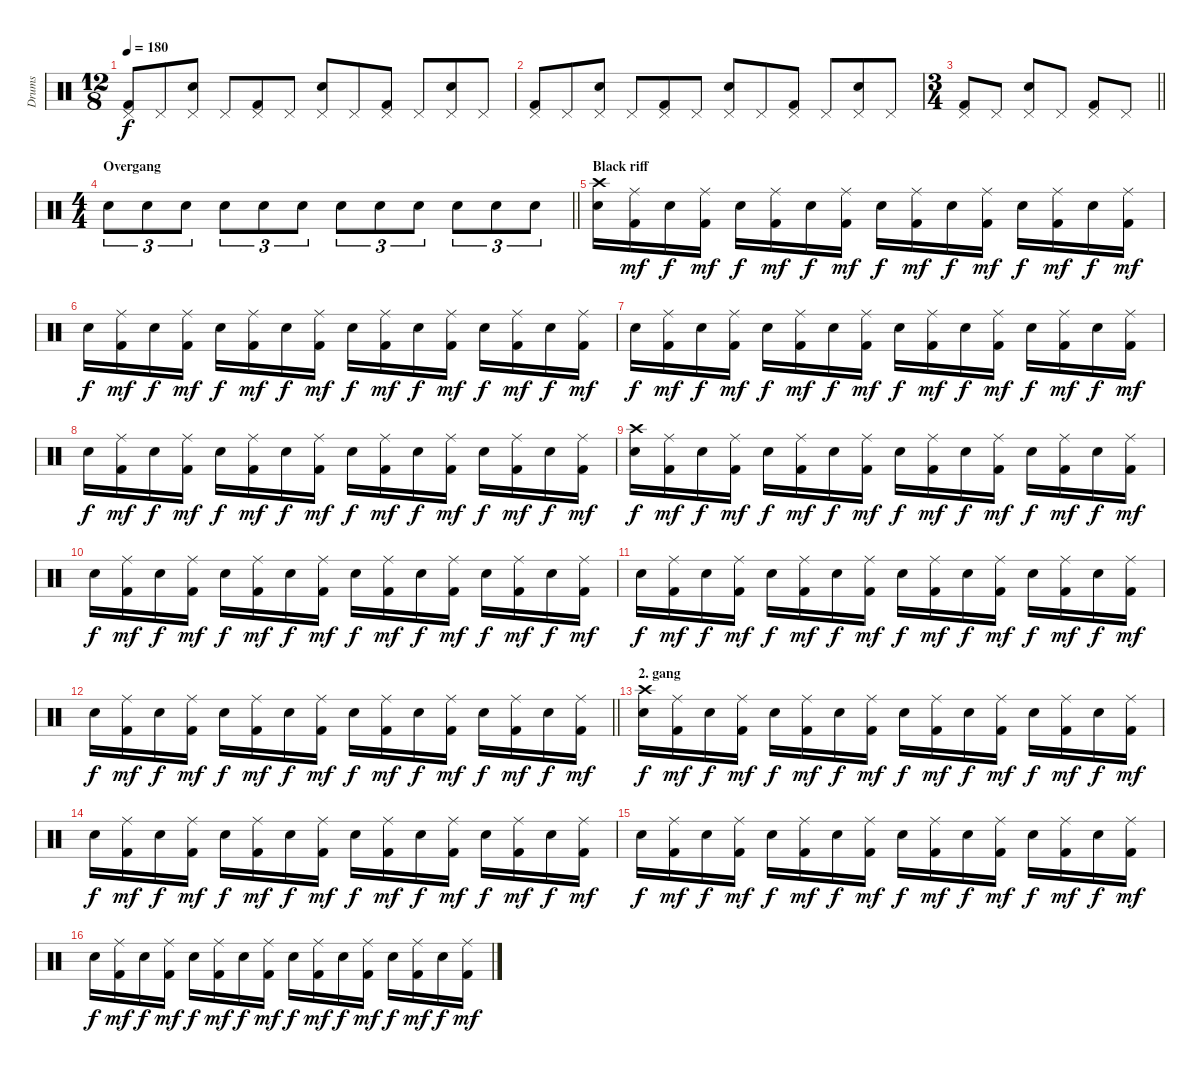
\track ("Drums" "Drums") {instrument percussion}
\staff {score}
\articulation defaults
\ts (12 8)
\tempo 180
\clef neutral
\ks c
("Pedal Hi-Hat (hit)" "Kick (hit) 2").8{dy f} "Pedal Hi-Hat (hit)".8 ("Pedal Hi-Hat (hit)" "Snare (hit) 2").8 "Pedal Hi-Hat (hit)".8 ("Pedal Hi-Hat (hit)" "Kick (hit) 2").8 "Pedal Hi-Hat (hit)".8 ("Pedal Hi-Hat (hit)" "Snare (hit) 2").8 "Pedal Hi-Hat (hit)".8 ("Pedal Hi-Hat (hit)" "Kick (hit) 2").8 "Pedal Hi-Hat (hit)".8 ("Pedal Hi-Hat (hit)" "Snare (hit) 2").8 "Pedal Hi-Hat (hit)".8 |
("Pedal Hi-Hat (hit)" "Kick (hit) 2").8 "Pedal Hi-Hat (hit)".8 ("Pedal Hi-Hat (hit)" "Snare (hit) 2").8 "Pedal Hi-Hat (hit)".8 ("Pedal Hi-Hat (hit)" "Kick (hit) 2").8 "Pedal Hi-Hat (hit)".8 ("Pedal Hi-Hat (hit)" "Snare (hit) 2").8 "Pedal Hi-Hat (hit)".8 ("Pedal Hi-Hat (hit)" "Kick (hit) 2").8 "Pedal Hi-Hat (hit)".8 ("Pedal Hi-Hat (hit)" "Snare (hit) 2").8 "Pedal Hi-Hat (hit)".8 |
\ts (3 4)
\barLineRight lightlight
("Pedal Hi-Hat (hit)" "Kick (hit) 2").8 "Pedal Hi-Hat (hit)".8 ("Pedal Hi-Hat (hit)" "Snare (hit) 2").8 "Pedal Hi-Hat (hit)".8 ("Pedal Hi-Hat (hit)" "Kick (hit) 2").8 "Pedal Hi-Hat (hit)".8 |
\ts (4 4)
\section ("" "Overgang")
\barLineRight lightlight "Snare (hit) 2".8{tu (3 2)} "Snare (hit) 2".8{tu (3 2)} "Snare (hit) 2".8{tu (3 2)} "Snare (hit) 2".8{tu (3 2)} "Snare (hit) 2".8{tu (3 2)} "Snare (hit) 2".8{tu (3 2)} "Snare (hit) 2".8{tu (3 2)} "Snare (hit) 2".8{tu (3 2)} "Snare (hit) 2".8{tu (3 2)} "Snare (hit) 2".8{tu (3 2)} "Snare (hit) 2".8{tu (3 2)} "Snare (hit) 2".8{tu (3 2)}
|
\section ("" "Black riff")
("Crash high (hit)" "Snare (hit) 2").16 ("Ride (middle)" "Kick (hit) 2").16{dy mf} "Snare (hit) 2".16{dy f} ("Ride (middle)" "Kick (hit) 2").16{dy mf} "Snare (hit) 2".16{dy f} ("Ride (middle)" "Kick (hit) 2").16{dy mf} "Snare (hit) 2".16{dy f} ("Ride (middle)" "Kick (hit) 2").16{dy mf} "Snare (hit) 2".16{dy f} ("Ride (middle)" "Kick (hit) 2").16{dy mf} "Snare (hit) 2".16{dy f} ("Ride (middle)" "Kick (hit) 2").16{dy mf} "Snare (hit) 2".16{dy f} ("Ride (middle)" "Kick (hit) 2").16{dy mf} "Snare (hit) 2".16{dy f} ("Ride (middle)" "Kick (hit) 2").16{dy mf} |
"Snare (hit) 2".16{dy f} ("Ride (middle)" "Kick (hit) 2").16{dy mf} "Snare (hit) 2".16{dy f} ("Ride (middle)" "Kick (hit) 2").16{dy mf} "Snare (hit) 2".16{dy f} ("Ride (middle)" "Kick (hit) 2").16{dy mf} "Snare (hit) 2".16{dy f} ("Ride (middle)" "Kick (hit) 2").16{dy mf} "Snare (hit) 2".16{dy f} ("Ride (middle)" "Kick (hit) 2").16{dy mf} "Snare (hit) 2".16{dy f} ("Ride (middle)" "Kick (hit) 2").16{dy mf} "Snare (hit) 2".16{dy f} ("Ride (middle)" "Kick (hit) 2").16{dy mf} "Snare (hit) 2".16{dy f} ("Ride (middle)" "Kick (hit) 2").16{dy mf} |
"Snare (hit) 2".16{dy f} ("Ride (middle)" "Kick (hit) 2").16{dy mf} "Snare (hit) 2".16{dy f} ("Ride (middle)" "Kick (hit) 2").16{dy mf} "Snare (hit) 2".16{dy f} ("Ride (middle)" "Kick (hit) 2").16{dy mf} "Snare (hit) 2".16{dy f} ("Ride (middle)" "Kick (hit) 2").16{dy mf} "Snare (hit) 2".16{dy f} ("Ride (middle)" "Kick (hit) 2").16{dy mf} "Snare (hit) 2".16{dy f} ("Ride (middle)" "Kick (hit) 2").16{dy mf} "Snare (hit) 2".16{dy f} ("Ride (middle)" "Kick (hit) 2").16{dy mf} "Snare (hit) 2".16{dy f} ("Ride (middle)" "Kick (hit) 2").16{dy mf} |
"Snare (hit) 2".16{dy f} ("Ride (middle)" "Kick (hit) 2").16{dy mf} "Snare (hit) 2".16{dy f} ("Ride (middle)" "Kick (hit) 2").16{dy mf} "Snare (hit) 2".16{dy f} ("Ride (middle)" "Kick (hit) 2").16{dy mf} "Snare (hit) 2".16{dy f} ("Ride (middle)" "Kick (hit) 2").16{dy mf} "Snare (hit) 2".16{dy f} ("Ride (middle)" "Kick (hit) 2").16{dy mf} "Snare (hit) 2".16{dy f} ("Ride (middle)" "Kick (hit) 2").16{dy mf} "Snare (hit) 2".16{dy f} ("Ride (middle)" "Kick (hit) 2").16{dy mf} "Snare (hit) 2".16{dy f} ("Ride (middle)" "Kick (hit) 2").16{dy mf} |
("Crash high (hit)" "Snare (hit) 2").16{dy f} ("Ride (middle)" "Kick (hit) 2").16{dy mf} "Snare (hit) 2".16{dy f} ("Ride (middle)" "Kick (hit) 2").16{dy mf} "Snare (hit) 2".16{dy f} ("Ride (middle)" "Kick (hit) 2").16{dy mf} "Snare (hit) 2".16{dy f} ("Ride (middle)" "Kick (hit) 2").16{dy mf} "Snare (hit) 2".16{dy f} ("Ride (middle)" "Kick (hit) 2").16{dy mf} "Snare (hit) 2".16{dy f} ("Ride (middle)" "Kick (hit) 2").16{dy mf} "Snare (hit) 2".16{dy f} ("Ride (middle)" "Kick (hit) 2").16{dy mf} "Snare (hit) 2".16{dy f} ("Ride (middle)" "Kick (hit) 2").16{dy mf} |
"Snare (hit) 2".16{dy f} ("Ride (middle)" "Kick (hit) 2").16{dy mf} "Snare (hit) 2".16{dy f} ("Ride (middle)" "Kick (hit) 2").16{dy mf} "Snare (hit) 2".16{dy f} ("Ride (middle)" "Kick (hit) 2").16{dy mf} "Snare (hit) 2".16{dy f} ("Ride (middle)" "Kick (hit) 2").16{dy mf} "Snare (hit) 2".16{dy f} ("Ride (middle)" "Kick (hit) 2").16{dy mf} "Snare (hit) 2".16{dy f} ("Ride (middle)" "Kick (hit) 2").16{dy mf} "Snare (hit) 2".16{dy f} ("Ride (middle)" "Kick (hit) 2").16{dy mf} "Snare (hit) 2".16{dy f} ("Ride (middle)" "Kick (hit) 2").16{dy mf} |
"Snare (hit) 2".16{dy f} ("Ride (middle)" "Kick (hit) 2").16{dy mf} "Snare (hit) 2".16{dy f} ("Ride (middle)" "Kick (hit) 2").16{dy mf} "Snare (hit) 2".16{dy f} ("Ride (middle)" "Kick (hit) 2").16{dy mf} "Snare (hit) 2".16{dy f} ("Ride (middle)" "Kick (hit) 2").16{dy mf} "Snare (hit) 2".16{dy f} ("Ride (middle)" "Kick (hit) 2").16{dy mf} "Snare (hit) 2".16{dy f} ("Ride (middle)" "Kick (hit) 2").16{dy mf} "Snare (hit) 2".16{dy f} ("Ride (middle)" "Kick (hit) 2").16{dy mf} "Snare (hit) 2".16{dy f} ("Ride (middle)" "Kick (hit) 2").16{dy mf} |
\barLineRight lightlight "Snare (hit) 2".16{dy f}
("Ride (middle)" "Kick (hit) 2").16{dy mf} "Snare (hit) 2".16{dy f} ("Ride (middle)" "Kick (hit) 2").16{dy mf} "Snare (hit) 2".16{dy f} ("Ride (middle)" "Kick (hit) 2").16{dy mf} "Snare (hit) 2".16{dy f} ("Ride (middle)" "Kick (hit) 2").16{dy mf} "Snare (hit) 2".16{dy f} ("Ride (middle)" "Kick (hit) 2").16{dy mf} "Snare (hit) 2".16{dy f} ("Ride (middle)" "Kick (hit) 2").16{dy mf} "Snare (hit) 2".16{dy f} ("Ride (middle)" "Kick (hit) 2").16{dy mf} "Snare (hit) 2".16{dy f} ("Ride (middle)" "Kick (hit) 2").16{dy mf} |
\section ("" "2. gang")
("Crash high (hit)" "Snare (hit) 2").16{dy f} ("Ride (middle)" "Kick (hit) 2").16{dy mf} "Snare (hit) 2".16{dy f} ("Ride (middle)" "Kick (hit) 2").16{dy mf} "Snare (hit) 2".16{dy f} ("Ride (middle)" "Kick (hit) 2").16{dy mf} "Snare (hit) 2".16{dy f} ("Ride (middle)" "Kick (hit) 2").16{dy mf} "Snare (hit) 2".16{dy f} ("Ride (middle)" "Kick (hit) 2").16{dy mf} "Snare (hit) 2".16{dy f} ("Ride (middle)" "Kick (hit) 2").16{dy mf} "Snare (hit) 2".16{dy f} ("Ride (middle)" "Kick (hit) 2").16{dy mf} "Snare (hit) 2".16{dy f} ("Ride (middle)" "Kick (hit) 2").16{dy mf} |
"Snare (hit) 2".16{dy f} ("Ride (middle)" "Kick (hit) 2").16{dy mf} "Snare (hit) 2".16{dy f} ("Ride (middle)" "Kick (hit) 2").16{dy mf} "Snare (hit) 2".16{dy f} ("Ride (middle)" "Kick (hit) 2").16{dy mf} "Snare (hit) 2".16{dy f} ("Ride (middle)" "Kick (hit) 2").16{dy mf} "Snare (hit) 2".16{dy f} ("Ride (middle)" "Kick (hit) 2").16{dy mf} "Snare (hit) 2".16{dy f} ("Ride (middle)" "Kick (hit) 2").16{dy mf} "Snare (hit) 2".16{dy f} ("Ride (middle)" "Kick (hit) 2").16{dy mf} "Snare (hit) 2".16{dy f} ("Ride (middle)" "Kick (hit) 2").16{dy mf} |
"Snare (hit) 2".16{dy f} ("Ride (middle)" "Kick (hit) 2").16{dy mf} "Snare (hit) 2".16{dy f} ("Ride (middle)" "Kick (hit) 2").16{dy mf} "Snare (hit) 2".16{dy f} ("Ride (middle)" "Kick (hit) 2").16{dy mf} "Snare (hit) 2".16{dy f} ("Ride (middle)" "Kick (hit) 2").16{dy mf} "Snare (hit) 2".16{dy f} ("Ride (middle)" "Kick (hit) 2").16{dy mf} "Snare (hit) 2".16{dy f} ("Ride (middle)" "Kick (hit) 2").16{dy mf} "Snare (hit) 2".16{dy f} ("Ride (middle)" "Kick (hit) 2").16{dy mf} "Snare (hit) 2".16{dy f} ("Ride (middle)" "Kick (hit) 2").16{dy mf} |
"Snare (hit) 2".16{dy f} ("Ride (middle)" "Kick (hit) 2").16{dy mf} "Snare (hit) 2".16{dy f} ("Ride (middle)" "Kick (hit) 2").16{dy mf} "Snare (hit) 2".16{dy f} ("Ride (middle)" "Kick (hit) 2").16{dy mf} "Snare (hit) 2".16{dy f} ("Ride (middle)" "Kick (hit) 2").16{dy mf} "Snare (hit) 2".16{dy f} ("Ride (middle)" "Kick (hit) 2").16{dy mf} "Snare (hit) 2".16{dy f} ("Ride (middle)" "Kick (hit) 2").16{dy mf} "Snare (hit) 2".16{dy f} ("Ride (middle)" "Kick (hit) 2").16{dy mf} "Snare (hit) 2".16{dy f} ("Ride (middle)" "Kick (hit) 2").16{dy mf}
